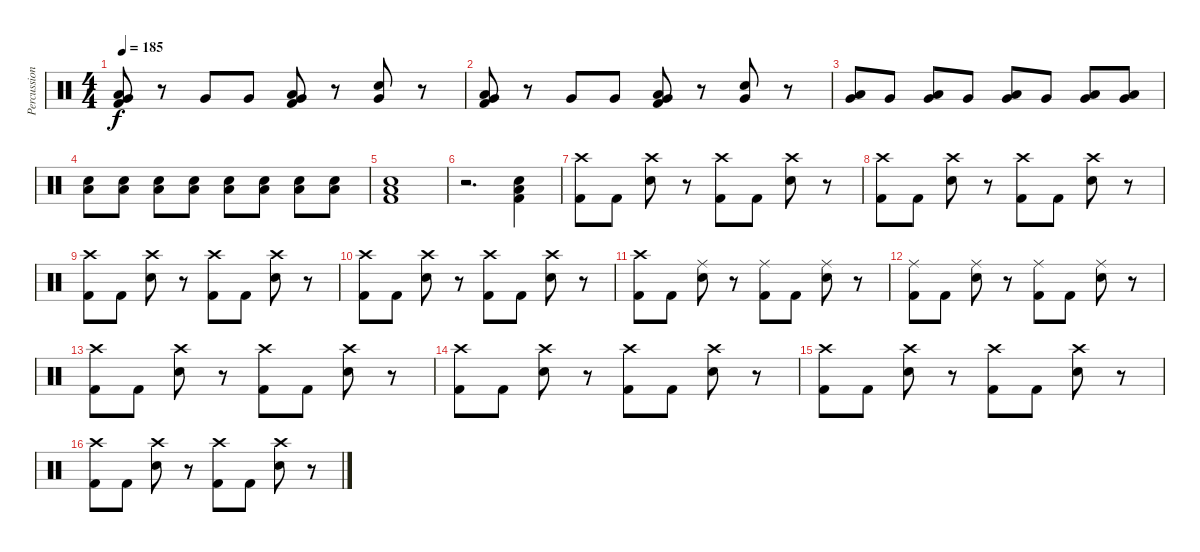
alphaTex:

\track ("Percussion" "Percussion") {instrument percussion}
\staff {score}
\articulation defaults
\ts (4 4)
\tempo 185
\clef neutral
\ks c
("Very Low Tom (hit)" "Low Floor Tom (hit)" "Kick (hit) 2").8{dy f} r.8 "Very Low Tom (hit)".8 "Very Low Tom (hit)".8 ("Very Low Tom (hit)" "Low Floor Tom (hit)" "Kick (hit) 2").8 r.8 ("Very Low Tom (hit)" "Snare (hit) 2").8 r.8 |
("Very Low Tom (hit)" "Low Floor Tom (hit)" "Kick (hit) 2").8 r.8 "Very Low Tom (hit)".8 "Very Low Tom (hit)".8 ("Very Low Tom (hit)" "Low Floor Tom (hit)" "Kick (hit) 2").8 r.8 ("Very Low Tom (hit)" "Snare (hit) 2").8 r.8 |
("Very Low Tom (hit)" "Low Floor Tom (hit)").8 "Very Low Tom (hit)".8 ("Very Low Tom (hit)" "Low Floor Tom (hit)").8 "Very Low Tom (hit)".8 ("Very Low Tom (hit)" "Low Floor Tom (hit)").8 "Very Low Tom (hit)".8 ("Very Low Tom (hit)" "Low Floor Tom (hit)").8 ("Very Low Tom (hit)" "Low Floor Tom (hit)").8 |
("Snare (hit) 2" "Low Floor Tom (hit)").8{volume 10} ("Snare (hit) 2" "Low Floor Tom (hit)").8{volume 16} ("Snare (hit) 2" "Low Floor Tom (hit)").8 ("Snare (hit) 2" "Low Floor Tom (hit)").8 ("Snare (hit) 2" "Low Floor Tom (hit)").8 ("Snare (hit) 2" "Low Floor Tom (hit)").8 ("Snare (hit) 2" "Low Floor Tom (hit)").8 ("Snare (hit) 2" "Low Floor Tom (hit)").8 |
("Snare (hit) 2" "Low Floor Tom (hit)" "Kick (hit) 2").1 |
r.2{d} ("Low Floor Tom (hit)" "Snare (hit) 2" "Kick (hit) 2").4 |
("Crash high (hit)" "Kick (hit) 2").8 "Kick (hit) 2".8 ("Crash high (hit)" "Snare (hit) 2").8 r.8 ("Crash high (hit)" "Kick (hit) 2").8 "Kick (hit) 2".8 ("Crash high (hit)" "Snare (hit) 2").8 r.8 |
("Crash high (hit)" "Kick (hit) 2").8 "Kick (hit) 2".8 ("Crash high (hit)" "Snare (hit) 2").8 r.8 ("Crash high (hit)" "Kick (hit) 2").8 "Kick (hit) 2".8 ("Crash high (hit)" "Snare (hit) 2").8 r.8 |
("Crash high (hit)" "Kick (hit) 2").8 "Kick (hit) 2".8 ("Crash high (hit)" "Snare (hit) 2").8 r.8 ("Crash high (hit)" "Kick (hit) 2").8 "Kick (hit) 2".8 ("Crash high (hit)" "Snare (hit) 2").8 r.8 |
("Crash high (hit)" "Kick (hit) 2").8 "Kick (hit) 2".8 ("Crash high (hit)" "Snare (hit) 2").8 r.8 ("Crash high (hit)" "Kick (hit) 2").8 "Kick (hit) 2".8 ("Crash high (hit)" "Snare (hit) 2").8 r.8 |
("Crash high (hit)" "Kick (hit) 2").8 "Kick (hit) 2".8 ("Ride (middle)" "Snare (hit) 2").8 r.8 ("Ride (middle)" "Kick (hit) 2").8 "Kick (hit) 2".8 ("Ride (middle)" "Snare (hit) 2").8 r.8 |
("Ride (middle)" "Kick (hit) 2").8 "Kick (hit) 2".8 ("Ride (middle)" "Snare (hit) 2").8 r.8 ("Ride (middle)" "Kick (hit) 2").8 "Kick (hit) 2".8 ("Ride (middle)" "Snare (hit) 2").8 r.8 |
("Crash high (hit)" "Kick (hit) 2").8 "Kick (hit) 2".8 ("Crash high (hit)" "Snare (hit) 2").8 r.8 ("Crash high (hit)" "Kick (hit) 2").8 "Kick (hit) 2".8 ("Crash high (hit)" "Snare (hit) 2").8 r.8 |
("Crash high (hit)" "Kick (hit) 2").8 "Kick (hit) 2".8 ("Crash high (hit)" "Snare (hit) 2").8 r.8 ("Crash high (hit)" "Kick (hit) 2").8 "Kick (hit) 2".8 ("Crash high (hit)" "Snare (hit) 2").8 r.8 |
("Crash high (hit)" "Kick (hit) 2").8 "Kick (hit) 2".8 ("Crash high (hit)" "Snare (hit) 2").8 r.8 ("Crash high (hit)" "Kick (hit) 2").8 "Kick (hit) 2".8 ("Crash high (hit)" "Snare (hit) 2").8 r.8 |
("Crash high (hit)" "Kick (hit) 2").8 "Kick (hit) 2".8 ("Crash high (hit)" "Snare (hit) 2").8 r.8 ("Crash high (hit)" "Kick (hit) 2").8 "Kick (hit) 2".8 ("Crash high (hit)" "Snare (hit) 2").8 r.8
